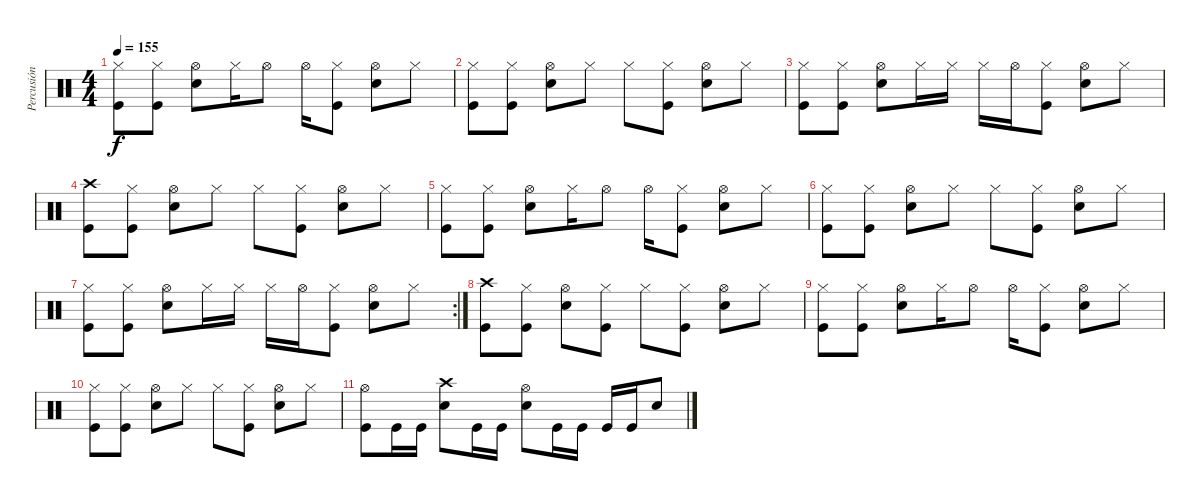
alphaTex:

\track ("Percusión" "Percusión") {instrument percussion}
\staff {score}
\articulation defaults
\ts (4 4)
\tempo 155
\clef neutral
\ks c
("Hi-Hat (closed)" "Kick (hit)").8{dy f} ("Hi-Hat (closed)" "Kick (hit)").8 ("Hi-Hat (open)" "Snare (hit) 2").8 "Hi-Hat (closed)".16 "Hi-Hat (open)".8 "Hi-Hat (open)".16 ("Hi-Hat (closed)" "Kick (hit)").8 ("Hi-Hat (open)" "Snare (hit) 2").8 "Hi-Hat (closed)".8 |
("Hi-Hat (closed)" "Kick (hit)").8 ("Hi-Hat (closed)" "Kick (hit)").8 ("Hi-Hat (open)" "Snare (hit) 2").8 "Hi-Hat (closed)".8 "Hi-Hat (closed)".8 ("Hi-Hat (closed)" "Kick (hit)").8 ("Hi-Hat (open)" "Snare (hit) 2").8 "Hi-Hat (closed)".8 |
("Hi-Hat (closed)" "Kick (hit)").8 ("Hi-Hat (closed)" "Kick (hit)").8 ("Hi-Hat (open)" "Snare (hit) 2").8 "Hi-Hat (closed)".16 "Hi-Hat (closed)".16 "Hi-Hat (closed)".16 "Hi-Hat (open)".16 ("Hi-Hat (closed)" "Kick (hit)").8 ("Hi-Hat (open)" "Snare (hit) 2").8 "Hi-Hat (closed)".8 |
("Crash high (hit)" "Kick (hit)").8 ("Hi-Hat (closed)" "Kick (hit)").8 ("Hi-Hat (open)" "Snare (hit) 2").8 "Hi-Hat (closed)".8 "Hi-Hat (closed)".8 ("Hi-Hat (closed)" "Kick (hit)").8 ("Hi-Hat (open)" "Snare (hit) 2").8 "Hi-Hat (closed)".8 |
("Hi-Hat (closed)" "Kick (hit)").8 ("Hi-Hat (closed)" "Kick (hit)").8 ("Hi-Hat (open)" "Snare (hit) 2").8 "Hi-Hat (closed)".16 "Hi-Hat (open)".8 "Hi-Hat (open)".16 ("Hi-Hat (closed)" "Kick (hit)").8 ("Hi-Hat (open)" "Snare (hit) 2").8 "Hi-Hat (closed)".8 |
("Hi-Hat (closed)" "Kick (hit)").8 ("Hi-Hat (closed)" "Kick (hit)").8 ("Hi-Hat (open)" "Snare (hit) 2").8 "Hi-Hat (closed)".8 "Hi-Hat (closed)".8 ("Hi-Hat (closed)" "Kick (hit)").8 ("Hi-Hat (open)" "Snare (hit) 2").8 "Hi-Hat (closed)".8 |
\rc 2
("Hi-Hat (closed)" "Kick (hit)").8 ("Hi-Hat (closed)" "Kick (hit)").8 ("Hi-Hat (open)" "Snare (hit) 2").8 "Hi-Hat (closed)".16 "Hi-Hat (closed)".16 "Hi-Hat (closed)".16 "Hi-Hat (open)".16 ("Hi-Hat (closed)" "Kick (hit)").8 ("Hi-Hat (open)" "Snare (hit) 2").8 "Hi-Hat (closed)".8 |
("Crash high (hit)" "Kick (hit)").8 ("Hi-Hat (closed)" "Kick (hit)").8 ("Hi-Hat (open)" "Snare (hit) 2").8 ("Hi-Hat (closed)" "Kick (hit)").8 "Hi-Hat (closed)".8 ("Hi-Hat (closed)" "Kick (hit)").8 ("Hi-Hat (open)" "Snare (hit) 2").8 "Hi-Hat (closed)".8 |
("Hi-Hat (closed)" "Kick (hit)").8 ("Hi-Hat (closed)" "Kick (hit)").8 ("Hi-Hat (open)" "Snare (hit) 2").8 "Hi-Hat (closed)".16 "Hi-Hat (open)".8 "Hi-Hat (open)".16 ("Hi-Hat (closed)" "Kick (hit)").8 ("Hi-Hat (open)" "Snare (hit) 2").8 "Hi-Hat (closed)".8 |
("Hi-Hat (closed)" "Kick (hit)").8 ("Hi-Hat (closed)" "Kick (hit)").8 ("Hi-Hat (open)" "Snare (hit) 2").8 "Hi-Hat (closed)".8 "Hi-Hat (closed)".8 ("Hi-Hat (closed)" "Kick (hit)").8 ("Hi-Hat (open)" "Snare (hit) 2").8 "Hi-Hat (closed)".8 |
("Hi-Hat (open)" "Kick (hit)").8 "Kick (hit)".16 "Kick (hit)".16 ("Crash high (hit)" "Snare (hit) 2").8 "Kick (hit)".16 "Kick (hit)".16 ("Hi-Hat (open)" "Snare (hit) 2").8 "Kick (hit)".16 "Kick (hit)".16 "Kick (hit)".16 "Kick (hit)".16 "Snare (hit) 2".8
